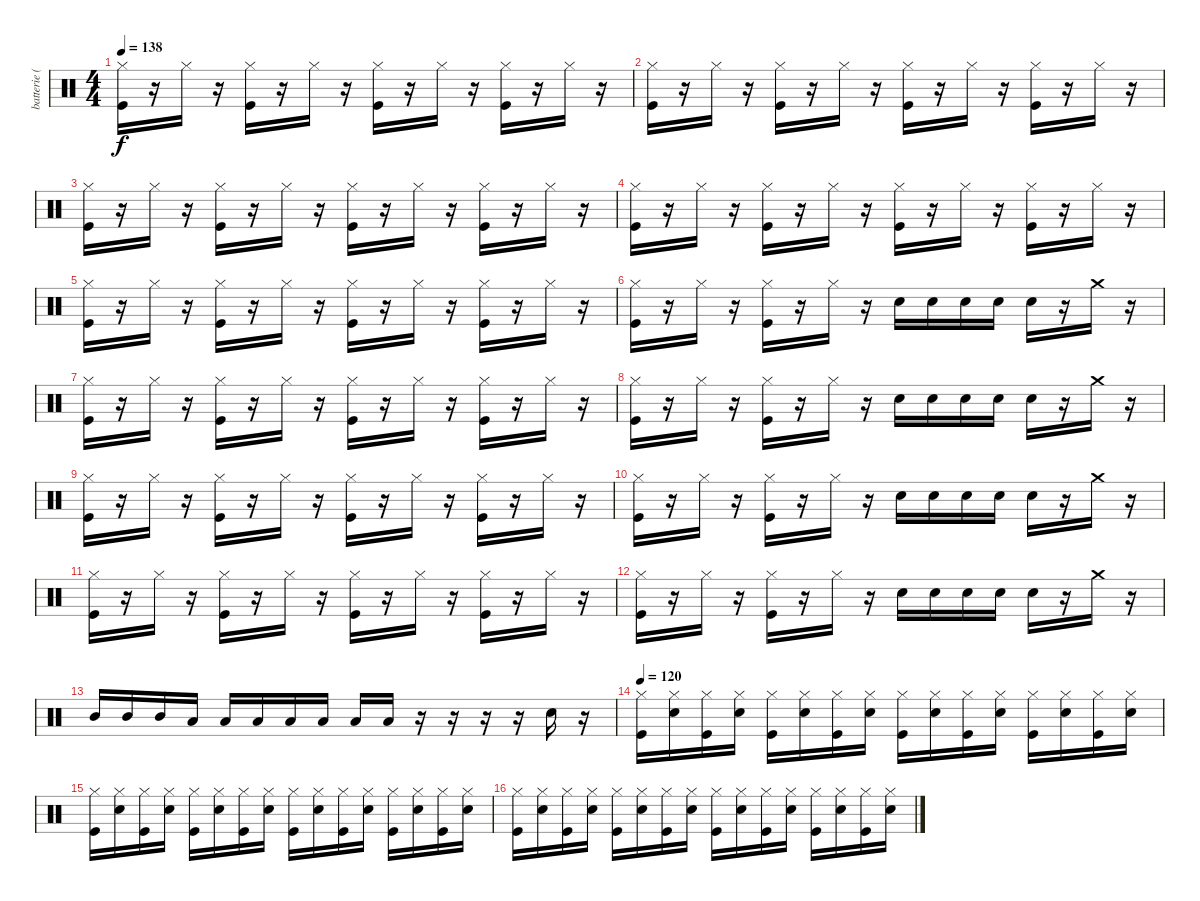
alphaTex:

\track ("batterie ( Jeff Nelson ) " "batterie (") {instrument percussion}
\staff {score}
\articulation defaults
\ts (4 4)
\tempo 138
\clef neutral
\ks c
("Hi-Hat (closed)" "Kick (hit)").16{dy f} r.16 "Hi-Hat (closed)".16 r.16 ("Hi-Hat (closed)" "Kick (hit)").16 r.16 "Hi-Hat (closed)".16 r.16 ("Hi-Hat (closed)" "Kick (hit)").16 r.16 "Hi-Hat (closed)".16 r.16 ("Hi-Hat (closed)" "Kick (hit)").16 r.16 "Hi-Hat (closed)".16 r.16 |
("Hi-Hat (closed)" "Kick (hit)").16 r.16 "Hi-Hat (closed)".16 r.16 ("Hi-Hat (closed)" "Kick (hit)").16 r.16 "Hi-Hat (closed)".16 r.16 ("Hi-Hat (closed)" "Kick (hit)").16 r.16 "Hi-Hat (closed)".16 r.16 ("Hi-Hat (closed)" "Kick (hit)").16 r.16 "Hi-Hat (closed)".16 r.16 |
("Hi-Hat (closed)" "Kick (hit)").16 r.16 "Hi-Hat (closed)".16 r.16 ("Hi-Hat (closed)" "Kick (hit)").16 r.16 "Hi-Hat (closed)".16 r.16 ("Hi-Hat (closed)" "Kick (hit)").16 r.16 "Hi-Hat (closed)".16 r.16 ("Hi-Hat (closed)" "Kick (hit)").16 r.16 "Hi-Hat (closed)".16 r.16 |
("Hi-Hat (closed)" "Kick (hit)").16 r.16 "Hi-Hat (closed)".16 r.16 ("Hi-Hat (closed)" "Kick (hit)").16 r.16 "Hi-Hat (closed)".16 r.16 ("Hi-Hat (closed)" "Kick (hit)").16 r.16 "Hi-Hat (closed)".16 r.16 ("Hi-Hat (closed)" "Kick (hit)").16 r.16 "Hi-Hat (closed)".16 r.16 |
("Hi-Hat (closed)" "Kick (hit)").16 r.16 "Hi-Hat (closed)".16 r.16 ("Hi-Hat (closed)" "Kick (hit)").16 r.16 "Hi-Hat (closed)".16 r.16 ("Hi-Hat (closed)" "Kick (hit)").16 r.16 "Hi-Hat (closed)".16 r.16 ("Hi-Hat (closed)" "Kick (hit)").16 r.16 "Hi-Hat (closed)".16 r.16 |
("Hi-Hat (closed)" "Kick (hit)").16 r.16 "Hi-Hat (closed)".16 r.16 ("Hi-Hat (closed)" "Kick (hit)").16 r.16 "Hi-Hat (closed)".16 r.16 "Snare (hit) 2".16 "Snare (hit) 2".16 "Snare (hit) 2".16 "Snare (hit) 2".16 "Snare (hit) 2".16 r.16 "Crash medium (hit)".16 r.16 |
("Hi-Hat (closed)" "Kick (hit)").16 r.16 "Hi-Hat (closed)".16 r.16 ("Hi-Hat (closed)" "Kick (hit)").16 r.16 "Hi-Hat (closed)".16 r.16 ("Hi-Hat (closed)" "Kick (hit)").16 r.16 "Hi-Hat (closed)".16 r.16 ("Hi-Hat (closed)" "Kick (hit)").16 r.16 "Hi-Hat (closed)".16 r.16 |
("Hi-Hat (closed)" "Kick (hit)").16 r.16 "Hi-Hat (closed)".16 r.16 ("Hi-Hat (closed)" "Kick (hit)").16 r.16 "Hi-Hat (closed)".16 r.16 "Snare (hit) 2".16 "Snare (hit) 2".16 "Snare (hit) 2".16 "Snare (hit) 2".16 "Snare (hit) 2".16 r.16 "Crash medium (hit)".16 r.16 |
("Hi-Hat (closed)" "Kick (hit)").16 r.16 "Hi-Hat (closed)".16 r.16 ("Hi-Hat (closed)" "Kick (hit)").16 r.16 "Hi-Hat (closed)".16 r.16 ("Hi-Hat (closed)" "Kick (hit)").16 r.16 "Hi-Hat (closed)".16 r.16 ("Hi-Hat (closed)" "Kick (hit)").16 r.16 "Hi-Hat (closed)".16 r.16 |
("Hi-Hat (closed)" "Kick (hit)").16 r.16 "Hi-Hat (closed)".16 r.16 ("Hi-Hat (closed)" "Kick (hit)").16 r.16 "Hi-Hat (closed)".16 r.16 "Snare (hit) 2".16 "Snare (hit) 2".16 "Snare (hit) 2".16 "Snare (hit) 2".16 "Snare (hit) 2".16 r.16 "Crash medium (hit)".16 r.16 |
("Hi-Hat (closed)" "Kick (hit)").16 r.16 "Hi-Hat (closed)".16 r.16 ("Hi-Hat (closed)" "Kick (hit)").16 r.16 "Hi-Hat (closed)".16 r.16 ("Hi-Hat (closed)" "Kick (hit)").16 r.16 "Hi-Hat (closed)".16 r.16 ("Hi-Hat (closed)" "Kick (hit)").16 r.16 "Hi-Hat (closed)".16 r.16 |
("Hi-Hat (closed)" "Kick (hit)").16 r.16 "Hi-Hat (closed)".16 r.16 ("Hi-Hat (closed)" "Kick (hit)").16 r.16 "Hi-Hat (closed)".16 r.16 "Snare (hit) 2".16 "Snare (hit) 2".16 "Snare (hit) 2".16 "Snare (hit) 2".16 "Snare (hit) 2".16 r.16 "Crash medium (hit)".16 r.16 |
"Mid Tom (hit)".16 "Mid Tom (hit)".16 "Mid Tom (hit)".16 "Low Tom (hit)".16 "Low Tom (hit)".16 "Low Tom (hit)".16 "Low Floor Tom (hit)".16 "Low Floor Tom (hit)".16 "Low Floor Tom (hit)".16 "Low Floor Tom (hit)".16 r.16 r.16 r.16 r.16 "Snare (hit) 2".16{volume 16} r.16{volume 9} |
\tempo 120
("Hi-Hat (closed)" "Kick (hit)").16 ("Hi-Hat (closed)" "Snare (hit) 2").16 ("Hi-Hat (closed)" "Kick (hit)").16 ("Hi-Hat (closed)" "Snare (hit) 2").16 ("Hi-Hat (closed)" "Kick (hit)").16 ("Hi-Hat (closed)" "Snare (hit) 2").16 ("Hi-Hat (closed)" "Kick (hit)").16 ("Hi-Hat (closed)" "Snare (hit) 2").16 ("Hi-Hat (closed)" "Kick (hit)").16 ("Hi-Hat (closed)" "Snare (hit) 2").16 ("Hi-Hat (closed)" "Kick (hit)").16 ("Hi-Hat (closed)" "Snare (hit) 2").16 ("Hi-Hat (closed)" "Kick (hit)").16 ("Hi-Hat (closed)" "Snare (hit) 2").16 ("Hi-Hat (closed)" "Kick (hit)").16 ("Hi-Hat (closed)" "Snare (hit) 2").16 |
("Hi-Hat (closed)" "Kick (hit)").16 ("Hi-Hat (closed)" "Snare (hit) 2").16 ("Hi-Hat (closed)" "Kick (hit)").16 ("Hi-Hat (closed)" "Snare (hit) 2").16 ("Hi-Hat (closed)" "Kick (hit)").16 ("Hi-Hat (closed)" "Snare (hit) 2").16 ("Hi-Hat (closed)" "Kick (hit)").16 ("Hi-Hat (closed)" "Snare (hit) 2").16 ("Hi-Hat (closed)" "Kick (hit)").16 ("Hi-Hat (closed)" "Snare (hit) 2").16 ("Hi-Hat (closed)" "Kick (hit)").16 ("Hi-Hat (closed)" "Snare (hit) 2").16 ("Hi-Hat (closed)" "Kick (hit)").16 ("Hi-Hat (closed)" "Snare (hit) 2").16 ("Hi-Hat (closed)" "Kick (hit)").16 ("Hi-Hat (closed)" "Snare (hit) 2").16 |
("Hi-Hat (closed)" "Kick (hit)").16 ("Hi-Hat (closed)" "Snare (hit) 2").16 ("Hi-Hat (closed)" "Kick (hit)").16 ("Hi-Hat (closed)" "Snare (hit) 2").16 ("Hi-Hat (closed)" "Kick (hit)").16 ("Hi-Hat (closed)" "Snare (hit) 2").16 ("Hi-Hat (closed)" "Kick (hit)").16 ("Hi-Hat (closed)" "Snare (hit) 2").16 ("Hi-Hat (closed)" "Kick (hit)").16 ("Hi-Hat (closed)" "Snare (hit) 2").16 ("Hi-Hat (closed)" "Kick (hit)").16 ("Hi-Hat (closed)" "Snare (hit) 2").16 ("Hi-Hat (closed)" "Kick (hit)").16 ("Hi-Hat (closed)" "Snare (hit) 2").16 ("Hi-Hat (closed)" "Kick (hit)").16 ("Hi-Hat (closed)" "Snare (hit) 2").16
